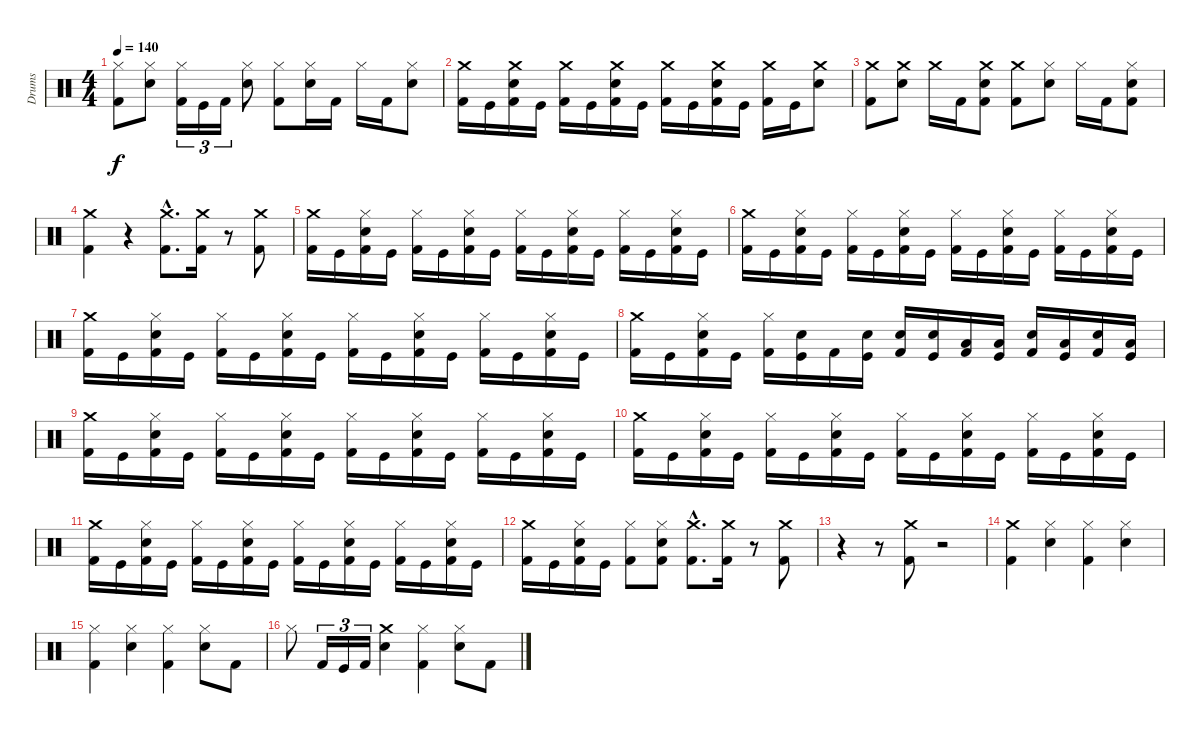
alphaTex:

\track ("Drums" "Drums") {instrument percussion}
\staff {score}
\articulation defaults
\ts (4 4)
\tempo 140
\clef neutral
\ks c
("Hi-Hat (closed)" "Kick (hit) 2").8{dy f} ("Snare (hit) 2" "Hi-Hat (closed)").8 ("Hi-Hat (closed)" "Kick (hit) 2").16{tu (3 2)} "Kick (hit)".16{tu (3 2)} "Kick (hit) 2".16{tu (3 2)} ("Snare (hit) 2" "Hi-Hat (closed)").8 ("Hi-Hat (closed)" "Kick (hit) 2").8 ("Snare (hit) 2" "Hi-Hat (closed)").16 "Kick (hit) 2".16 "Hi-Hat (closed)".16 "Kick (hit) 2".16 ("Snare (hit) 2" "Hi-Hat (closed)").8 |
("Crash medium (hit)" "Kick (hit) 2").16 "Kick (hit)".16 ("Snare (hit) 2" "Crash medium (hit)" "Kick (hit) 2").16 "Kick (hit)".16 ("Crash medium (hit)" "Kick (hit) 2").16 "Kick (hit)".16 ("Snare (hit) 2" "Crash medium (hit)" "Kick (hit) 2").16 "Kick (hit)".16 ("Crash medium (hit)" "Kick (hit) 2").16 "Kick (hit)".16 ("Snare (hit) 2" "Crash medium (hit)" "Kick (hit) 2").16 "Kick (hit)".16 ("Crash medium (hit)" "Kick (hit) 2").16 "Kick (hit)".16 ("Snare (hit) 2" "Crash medium (hit)").8 |
("Kick (hit) 2" "Crash medium (hit)").8 ("Snare (hit) 2" "Crash medium (hit)").8 "Crash medium (hit)".16 "Kick (hit) 2".16 ("Kick (hit) 2" "Snare (hit) 2" "Crash medium (hit)").8 ("Kick (hit) 2" "Crash medium (hit)").8 ("Hi-Hat (closed)" "Snare (hit) 2").8 "Hi-Hat (closed)".16 "Kick (hit) 2".16 ("Kick (hit) 2" "Snare (hit) 2" "Hi-Hat (closed)").8 |
("Crash medium (hit)" "Kick (hit) 2").4 r.4 ("Kick (hit) 2"{hac} "Crash medium (hit)"{hac}).8{d} ("Crash medium (hit)" "Kick (hit) 2").16 r.8 ("Crash medium (hit)" "Kick (hit) 2").8 |
("Crash medium (hit)" "Kick (hit) 2").16 "Kick (hit)".16 ("Snare (hit) 2" "Hi-Hat (closed)" "Kick (hit) 2").16 "Kick (hit)".16 ("Hi-Hat (closed)" "Kick (hit) 2").16 "Kick (hit)".16 ("Snare (hit) 2" "Hi-Hat (closed)" "Kick (hit) 2").16 "Kick (hit)".16 ("Hi-Hat (closed)" "Kick (hit) 2").16 "Kick (hit)".16 ("Snare (hit) 2" "Hi-Hat (closed)" "Kick (hit) 2").16 "Kick (hit)".16 ("Hi-Hat (closed)" "Kick (hit) 2").16 "Kick (hit)".16 ("Snare (hit) 2" "Hi-Hat (closed)" "Kick (hit) 2").16 "Kick (hit)".16 |
("Crash medium (hit)" "Kick (hit) 2").16 "Kick (hit)".16 ("Snare (hit) 2" "Hi-Hat (closed)" "Kick (hit) 2").16 "Kick (hit)".16 ("Hi-Hat (closed)" "Kick (hit) 2").16 "Kick (hit)".16 ("Snare (hit) 2" "Hi-Hat (closed)" "Kick (hit) 2").16 "Kick (hit)".16 ("Hi-Hat (closed)" "Kick (hit) 2").16 "Kick (hit)".16 ("Snare (hit) 2" "Hi-Hat (closed)" "Kick (hit) 2").16 "Kick (hit)".16 ("Hi-Hat (closed)" "Kick (hit) 2").16 "Kick (hit)".16 ("Snare (hit) 2" "Hi-Hat (closed)" "Kick (hit) 2").16 "Kick (hit)".16 |
("Crash medium (hit)" "Kick (hit) 2").16 "Kick (hit)".16 ("Snare (hit) 2" "Hi-Hat (closed)" "Kick (hit) 2").16 "Kick (hit)".16 ("Hi-Hat (closed)" "Kick (hit) 2").16 "Kick (hit)".16 ("Snare (hit) 2" "Hi-Hat (closed)" "Kick (hit) 2").16 "Kick (hit)".16 ("Hi-Hat (closed)" "Kick (hit) 2").16 "Kick (hit)".16 ("Snare (hit) 2" "Hi-Hat (closed)" "Kick (hit) 2").16 "Kick (hit)".16 ("Hi-Hat (closed)" "Kick (hit) 2").16 "Kick (hit)".16 ("Snare (hit) 2" "Hi-Hat (closed)" "Kick (hit) 2").16 "Kick (hit)".16 |
("Crash medium (hit)" "Kick (hit) 2").16 "Kick (hit)".16 ("Hi-Hat (closed)" "Snare (hit) 2" "Kick (hit) 2").16 "Kick (hit)".16 ("Hi-Hat (closed)" "Kick (hit) 2").16 ("Snare (hit) 2" "Kick (hit)").16 "Kick (hit) 2".16 ("Snare (hit) 2" "Kick (hit)").16 ("Snare (hit) 2" "Kick (hit) 2").16 ("Snare (hit) 2" "Kick (hit)").16 ("Low Tom (hit)" "Kick (hit) 2").16 ("Low Tom (hit)" "Kick (hit)").16 ("Snare (hit) 2" "Kick (hit) 2").16 ("Low Tom (hit)" "Kick (hit)").16 ("Snare (hit) 2" "Kick (hit) 2").16 ("Low Tom (hit)" "Kick (hit)").16 |
("Crash medium (hit)" "Kick (hit) 2").16 "Kick (hit)".16 ("Snare (hit) 2" "Hi-Hat (closed)" "Kick (hit) 2").16 "Kick (hit)".16 ("Hi-Hat (closed)" "Kick (hit) 2").16 "Kick (hit)".16 ("Snare (hit) 2" "Hi-Hat (closed)" "Kick (hit) 2").16 "Kick (hit)".16 ("Hi-Hat (closed)" "Kick (hit) 2").16 "Kick (hit)".16 ("Snare (hit) 2" "Hi-Hat (closed)" "Kick (hit) 2").16 "Kick (hit)".16 ("Hi-Hat (closed)" "Kick (hit) 2").16 "Kick (hit)".16 ("Snare (hit) 2" "Hi-Hat (closed)" "Kick (hit) 2").16 "Kick (hit)".16 |
("Crash medium (hit)" "Kick (hit) 2").16 "Kick (hit)".16 ("Snare (hit) 2" "Hi-Hat (closed)" "Kick (hit) 2").16 "Kick (hit)".16 ("Hi-Hat (closed)" "Kick (hit) 2").16 "Kick (hit)".16 ("Snare (hit) 2" "Hi-Hat (closed)" "Kick (hit) 2").16 "Kick (hit)".16 ("Hi-Hat (closed)" "Kick (hit) 2").16 "Kick (hit)".16 ("Snare (hit) 2" "Hi-Hat (closed)" "Kick (hit) 2").16 "Kick (hit)".16 ("Hi-Hat (closed)" "Kick (hit) 2").16 "Kick (hit)".16 ("Snare (hit) 2" "Hi-Hat (closed)" "Kick (hit) 2").16 "Kick (hit)".16 |
("Crash medium (hit)" "Kick (hit) 2").16 "Kick (hit)".16 ("Snare (hit) 2" "Hi-Hat (closed)" "Kick (hit) 2").16 "Kick (hit)".16 ("Hi-Hat (closed)" "Kick (hit) 2").16 "Kick (hit)".16 ("Snare (hit) 2" "Hi-Hat (closed)" "Kick (hit) 2").16 "Kick (hit)".16 ("Hi-Hat (closed)" "Kick (hit) 2").16 "Kick (hit)".16 ("Snare (hit) 2" "Hi-Hat (closed)" "Kick (hit) 2").16 "Kick (hit)".16 ("Hi-Hat (closed)" "Kick (hit) 2").16 "Kick (hit)".16 ("Snare (hit) 2" "Hi-Hat (closed)" "Kick (hit) 2").16 "Kick (hit)".16 |
("Crash medium (hit)" "Kick (hit) 2").16 "Kick (hit)".16 ("Snare (hit) 2" "Hi-Hat (closed)" "Kick (hit) 2").16 "Kick (hit)".16 ("Hi-Hat (closed)" "Kick (hit) 2").8 ("Snare (hit) 2" "Hi-Hat (closed)" "Kick (hit) 2").8 ("Crash medium (hit)"{hac} "Kick (hit) 2"{hac}).8{d} ("Crash medium (hit)" "Kick (hit) 2").16 r.8 ("Crash medium (hit)" "Kick (hit) 2").8 |
r.4 r.8 ("Kick (hit) 2" "Crash medium (hit)").8 r.2 |
("Kick (hit) 2" "Crash medium (hit)").4 ("Hi-Hat (closed)" "Snare (hit) 2").4 ("Hi-Hat (closed)" "Kick (hit) 2").4 ("Snare (hit) 2" "Hi-Hat (closed)").4 |
("Hi-Hat (closed)" "Kick (hit) 2").4 ("Hi-Hat (closed)" "Snare (hit) 2").4 ("Hi-Hat (closed)" "Kick (hit) 2").4 ("Hi-Hat (closed)" "Snare (hit) 2").8 "Kick (hit) 2".8 |
"Hi-Hat (closed)".8 "Kick (hit) 2".16{tu (3 2)} "Kick (hit)".16{tu (3 2)} "Kick (hit) 2".16{tu (3 2)} ("Snare (hit) 2" "Crash medium (hit)").4 ("Hi-Hat (closed)" "Kick (hit) 2").4 ("Snare (hit) 2" "Hi-Hat (closed)").8 "Kick (hit) 2".8
